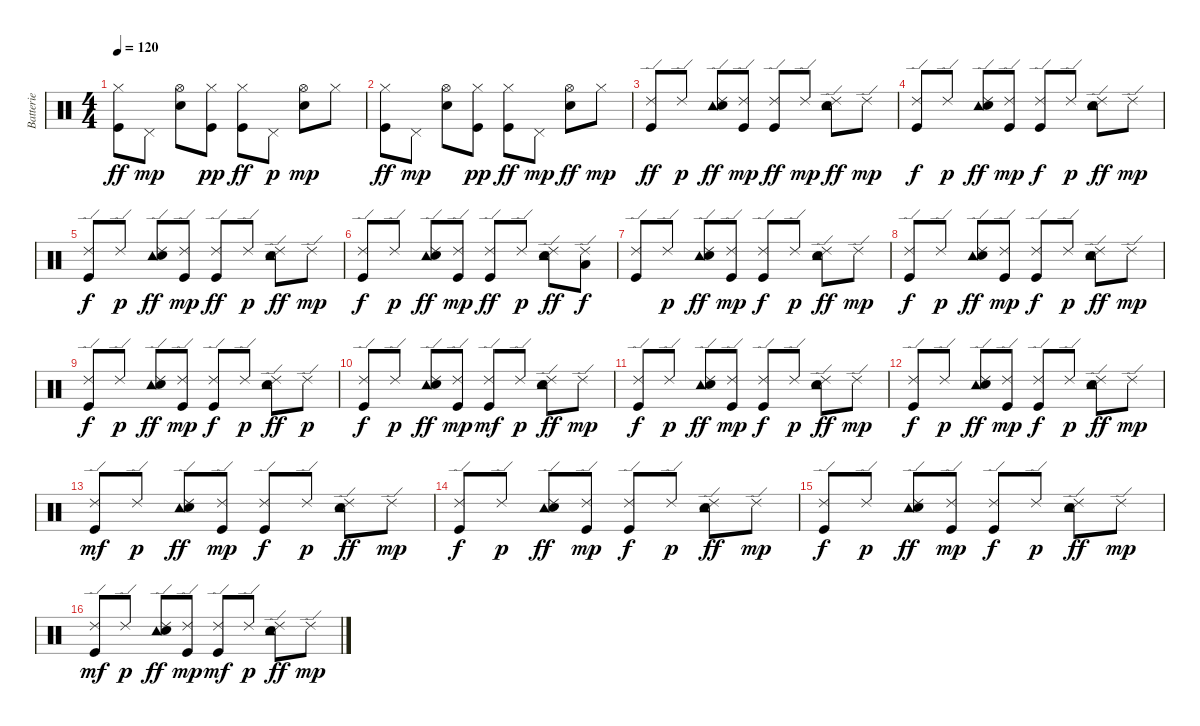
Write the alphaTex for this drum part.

\track ("Batterie" "Batterie") {instrument percussion}
\staff {score}
\articulation defaults
\ts (4 4)
\tempo 120
\clef neutral
\ks c
("Kick (hit)" "Hi-Hat (closed)").8{dy ff} "Pedal Hi-Hat (hit)".8{dy mp} ("Hi-Hat (open)" "Electric Snare (hit)").8 ("Kick (hit)" "Hi-Hat (closed)").8{dy pp} ("Kick (hit)" "Hi-Hat (closed)").8{dy ff} "Pedal Hi-Hat (hit)".8{dy p} ("Hi-Hat (open)" "Electric Snare (hit)").8{dy mp} "Hi-Hat (closed)".8 |
("Kick (hit)" "Hi-Hat (closed)").8{dy ff} "Pedal Hi-Hat (hit)".8{dy mp} ("Hi-Hat (open)" "Electric Snare (hit)").8 ("Kick (hit)" "Hi-Hat (closed)").8{dy pp} ("Kick (hit)" "Hi-Hat (closed)").8{dy ff} "Pedal Hi-Hat (hit)".8{dy mp} ("Hi-Hat (open)" "Electric Snare (hit)").8{dy ff} "Hi-Hat (closed)".8{dy mp} |
("Kick (hit)" "Ride (edge) 2").8{dy ff} "Ride (edge) 2".8{dy p} ("Tambourine (hit)" "Electric Snare (hit)" "Ride (edge) 2").8{dy ff} ("Kick (hit)" "Ride (edge) 2").8{dy mp} ("Kick (hit)" "Ride (edge) 2").8{dy ff} "Ride (edge) 2".8{dy mp} ("Tambourine (hit)" "Electric Snare (hit)" "Ride (edge) 2").8{dy ff} "Ride (edge) 2".8{dy mp} |
("Kick (hit)" "Ride (edge) 2").8{dy f} "Ride (edge) 2".8{dy p} ("Tambourine (hit)" "Electric Snare (hit)" "Ride (edge) 2").8{dy ff} ("Kick (hit)" "Ride (edge) 2").8{dy mp} ("Kick (hit)" "Ride (edge) 2").8{dy f} "Ride (edge) 2".8{dy p} ("Tambourine (hit)" "Electric Snare (hit)" "Ride (edge) 2").8{dy ff} "Ride (edge) 2".8{dy mp} |
("Kick (hit)" "Ride (edge) 2").8{dy f} "Ride (edge) 2".8{dy p} ("Tambourine (hit)" "Electric Snare (hit)" "Ride (edge) 2").8{dy ff} ("Kick (hit)" "Ride (edge) 2").8{dy mp} ("Kick (hit)" "Ride (edge) 2").8{dy ff} "Ride (edge) 2".8{dy p} ("Tambourine (hit)" "Electric Snare (hit)" "Ride (edge) 2").8{dy ff} "Ride (edge) 2".8{dy mp} |
("Kick (hit)" "Ride (edge) 2").8{dy f} "Ride (edge) 2".8{dy p} ("Tambourine (hit)" "Electric Snare (hit)" "Ride (edge) 2").8{dy ff} ("Kick (hit)" "Ride (edge) 2").8{dy mp} ("Kick (hit)" "Ride (edge) 2").8{dy ff} "Ride (edge) 2".8{dy p} ("Tambourine (hit)" "Electric Snare (hit)" "Ride (edge) 2").8{dy ff} ("Low Tom (hit)" "Ride (edge) 2").8{dy f} |
("Kick (hit)" "Ride (edge) 2").8 "Ride (edge) 2".8{dy p} ("Tambourine (hit)" "Electric Snare (hit)" "Ride (edge) 2").8{dy ff} ("Kick (hit)" "Ride (edge) 2").8{dy mp} ("Kick (hit)" "Ride (edge) 2").8{dy f} "Ride (edge) 2".8{dy p} ("Tambourine (hit)" "Electric Snare (hit)" "Ride (edge) 2").8{dy ff} "Ride (edge) 2".8{dy mp} |
("Kick (hit)" "Ride (edge) 2").8{dy f} "Ride (edge) 2".8{dy p} ("Tambourine (hit)" "Electric Snare (hit)" "Ride (edge) 2").8{dy ff} ("Kick (hit)" "Ride (edge) 2").8{dy mp} ("Kick (hit)" "Ride (edge) 2").8{dy f} "Ride (edge) 2".8{dy p} ("Tambourine (hit)" "Electric Snare (hit)" "Ride (edge) 2").8{dy ff} "Ride (edge) 2".8{dy mp} |
("Kick (hit)" "Ride (edge) 2").8{dy f} "Ride (edge) 2".8{dy p} ("Tambourine (hit)" "Electric Snare (hit)" "Ride (edge) 2").8{dy ff} ("Kick (hit)" "Ride (edge) 2").8{dy mp} ("Kick (hit)" "Ride (edge) 2").8{dy f} "Ride (edge) 2".8{dy p} ("Tambourine (hit)" "Electric Snare (hit)" "Ride (edge) 2").8{dy ff} "Ride (edge) 2".8{dy p} |
("Kick (hit)" "Ride (edge) 2").8{dy f} "Ride (edge) 2".8{dy p} ("Tambourine (hit)" "Electric Snare (hit)" "Ride (edge) 2").8{dy ff} ("Kick (hit)" "Ride (edge) 2").8{dy mp} ("Kick (hit)" "Ride (edge) 2").8{dy mf} "Ride (edge) 2".8{dy p} ("Tambourine (hit)" "Electric Snare (hit)" "Ride (edge) 2").8{dy ff} "Ride (edge) 2".8{dy mp} |
("Kick (hit)" "Ride (edge) 2").8{dy f} "Ride (edge) 2".8{dy p} ("Tambourine (hit)" "Electric Snare (hit)" "Ride (edge) 2").8{dy ff} ("Kick (hit)" "Ride (edge) 2").8{dy mp} ("Kick (hit)" "Ride (edge) 2").8{dy f} "Ride (edge) 2".8{dy p} ("Tambourine (hit)" "Electric Snare (hit)" "Ride (edge) 2").8{dy ff} "Ride (edge) 2".8{dy mp} |
("Kick (hit)" "Ride (edge) 2").8{dy f} "Ride (edge) 2".8{dy p} ("Tambourine (hit)" "Electric Snare (hit)" "Ride (edge) 2").8{dy ff} ("Kick (hit)" "Ride (edge) 2").8{dy mp} ("Kick (hit)" "Ride (edge) 2").8{dy f} "Ride (edge) 2".8{dy p} ("Tambourine (hit)" "Electric Snare (hit)" "Ride (edge) 2").8{dy ff} "Ride (edge) 2".8{dy mp} |
("Kick (hit)" "Ride (edge) 2").8{dy mf} "Ride (edge) 2".8{dy p} ("Tambourine (hit)" "Electric Snare (hit)" "Ride (edge) 2").8{dy ff} ("Kick (hit)" "Ride (edge) 2").8{dy mp} ("Kick (hit)" "Ride (edge) 2").8{dy f} "Ride (edge) 2".8{dy p} ("Tambourine (hit)" "Electric Snare (hit)" "Ride (edge) 2").8{dy ff} "Ride (edge) 2".8{dy mp} |
("Kick (hit)" "Ride (edge) 2").8{dy f} "Ride (edge) 2".8{dy p} ("Tambourine (hit)" "Electric Snare (hit)" "Ride (edge) 2").8{dy ff} ("Kick (hit)" "Ride (edge) 2").8{dy mp} ("Kick (hit)" "Ride (edge) 2").8{dy f} "Ride (edge) 2".8{dy p} ("Tambourine (hit)" "Electric Snare (hit)" "Ride (edge) 2").8{dy ff} "Ride (edge) 2".8{dy mp} |
("Kick (hit)" "Ride (edge) 2").8{dy f} "Ride (edge) 2".8{dy p} ("Tambourine (hit)" "Electric Snare (hit)" "Ride (edge) 2").8{dy ff} ("Kick (hit)" "Ride (edge) 2").8{dy mp} ("Kick (hit)" "Ride (edge) 2").8{dy f} "Ride (edge) 2".8{dy p} ("Tambourine (hit)" "Electric Snare (hit)" "Ride (edge) 2").8{dy ff} "Ride (edge) 2".8{dy mp} |
("Kick (hit)" "Ride (edge) 2").8{dy mf} "Ride (edge) 2".8{dy p} ("Tambourine (hit)" "Electric Snare (hit)" "Ride (edge) 2").8{dy ff} ("Kick (hit)" "Ride (edge) 2").8{dy mp} ("Kick (hit)" "Ride (edge) 2").8{dy mf} "Ride (edge) 2".8{dy p} ("Tambourine (hit)" "Electric Snare (hit)" "Ride (edge) 2").8{dy ff} "Ride (edge) 2".8{dy mp}
